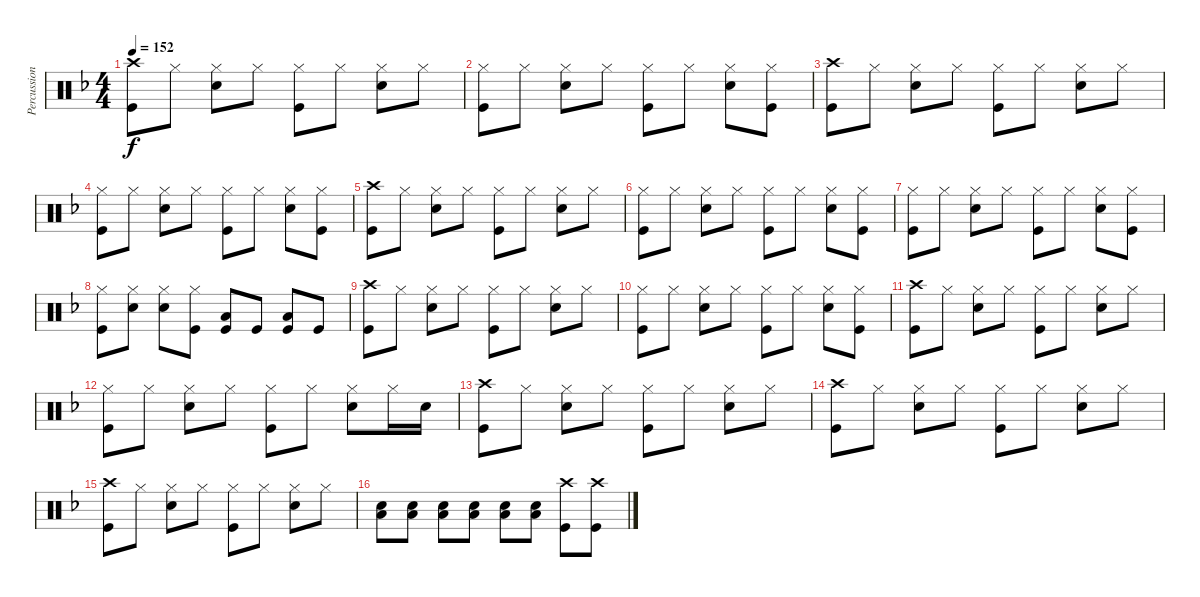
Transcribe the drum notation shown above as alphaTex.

\track ("Percussion" "Percussion") {instrument percussion}
\staff {score}
\articulation defaults
\ts (4 4)
\tempo 152
\clef neutral
\ks f
("Crash high (hit)" "Kick (hit)").8{dy f} "Hi-Hat (closed)".8 ("Hi-Hat (closed)" "Electric Snare (hit)").8 "Hi-Hat (closed)".8 ("Hi-Hat (closed)" "Kick (hit)").8 "Hi-Hat (closed)".8 ("Hi-Hat (closed)" "Electric Snare (hit)").8 "Hi-Hat (closed)".8 |
("Hi-Hat (closed)" "Kick (hit)").8 "Hi-Hat (closed)".8 ("Hi-Hat (closed)" "Electric Snare (hit)").8 "Hi-Hat (closed)".8 ("Hi-Hat (closed)" "Kick (hit)").8 "Hi-Hat (closed)".8 ("Hi-Hat (closed)" "Electric Snare (hit)").8 ("Hi-Hat (closed)" "Kick (hit)").8 |
("Crash high (hit)" "Kick (hit)").8 "Hi-Hat (closed)".8 ("Hi-Hat (closed)" "Electric Snare (hit)").8 "Hi-Hat (closed)".8 ("Hi-Hat (closed)" "Kick (hit)").8 "Hi-Hat (closed)".8 ("Hi-Hat (closed)" "Electric Snare (hit)").8 "Hi-Hat (closed)".8 |
("Hi-Hat (closed)" "Kick (hit)").8 "Hi-Hat (closed)".8 ("Hi-Hat (closed)" "Electric Snare (hit)").8 "Hi-Hat (closed)".8 ("Hi-Hat (closed)" "Kick (hit)").8 "Hi-Hat (closed)".8 ("Hi-Hat (closed)" "Electric Snare (hit)").8 ("Hi-Hat (closed)" "Kick (hit)").8 |
("Crash high (hit)" "Kick (hit)").8 "Hi-Hat (closed)".8 ("Hi-Hat (closed)" "Electric Snare (hit)").8 "Hi-Hat (closed)".8 ("Hi-Hat (closed)" "Kick (hit)").8 "Hi-Hat (closed)".8 ("Hi-Hat (closed)" "Electric Snare (hit)").8 "Hi-Hat (closed)".8 |
("Hi-Hat (closed)" "Kick (hit)").8 "Hi-Hat (closed)".8 ("Hi-Hat (closed)" "Electric Snare (hit)").8 "Hi-Hat (closed)".8 ("Hi-Hat (closed)" "Kick (hit)").8 "Hi-Hat (closed)".8 ("Hi-Hat (closed)" "Electric Snare (hit)").8 ("Hi-Hat (closed)" "Kick (hit)").8 |
("Hi-Hat (closed)" "Kick (hit)").8 "Hi-Hat (closed)".8 ("Hi-Hat (closed)" "Electric Snare (hit)").8 "Hi-Hat (closed)".8 ("Hi-Hat (closed)" "Kick (hit)").8 "Hi-Hat (closed)".8 ("Hi-Hat (closed)" "Electric Snare (hit)").8 ("Hi-Hat (closed)" "Kick (hit)").8 |
("Hi-Hat (closed)" "Kick (hit)").8 ("Hi-Hat (closed)" "Electric Snare (hit)").8 ("Hi-Hat (closed)" "Electric Snare (hit)").8 ("Hi-Hat (closed)" "Kick (hit)").8 ("Low Tom (hit)" "Kick (hit)").8 "Kick (hit)".8 ("Kick (hit)" "Low Tom (hit)").8 "Kick (hit)".8 |
("Crash high (hit)" "Kick (hit)").8 "Hi-Hat (closed)".8 ("Hi-Hat (closed)" "Electric Snare (hit)").8 "Hi-Hat (closed)".8 ("Hi-Hat (closed)" "Kick (hit)").8 "Hi-Hat (closed)".8 ("Hi-Hat (closed)" "Electric Snare (hit)").8 "Hi-Hat (closed)".8 |
("Hi-Hat (closed)" "Kick (hit)").8 "Hi-Hat (closed)".8 ("Hi-Hat (closed)" "Electric Snare (hit)").8 "Hi-Hat (closed)".8 ("Hi-Hat (closed)" "Kick (hit)").8 "Hi-Hat (closed)".8 ("Hi-Hat (closed)" "Electric Snare (hit)").8 ("Hi-Hat (closed)" "Kick (hit)").8 |
("Crash high (hit)" "Kick (hit)").8 "Hi-Hat (closed)".8 ("Hi-Hat (closed)" "Electric Snare (hit)").8 "Hi-Hat (closed)".8 ("Hi-Hat (closed)" "Kick (hit)").8 "Hi-Hat (closed)".8 ("Hi-Hat (closed)" "Electric Snare (hit)").8 "Hi-Hat (closed)".8 |
("Hi-Hat (closed)" "Kick (hit)").8 "Hi-Hat (closed)".8 ("Hi-Hat (closed)" "Electric Snare (hit)").8 "Hi-Hat (closed)".8 ("Hi-Hat (closed)" "Kick (hit)").8 "Hi-Hat (closed)".8 ("Hi-Hat (closed)" "Electric Snare (hit)").8 "Hi-Hat (closed)".16 "Electric Snare (hit)".16 |
("Crash high (hit)" "Kick (hit)").8 "Hi-Hat (closed)".8 ("Hi-Hat (closed)" "Electric Snare (hit)").8 "Hi-Hat (closed)".8 ("Hi-Hat (closed)" "Kick (hit)").8 "Hi-Hat (closed)".8 ("Hi-Hat (closed)" "Electric Snare (hit)").8 "Hi-Hat (closed)".8 |
("Crash high (hit)" "Kick (hit)").8 "Hi-Hat (closed)".8 ("Hi-Hat (closed)" "Electric Snare (hit)").8 "Hi-Hat (closed)".8 ("Hi-Hat (closed)" "Kick (hit)").8 "Hi-Hat (closed)".8 ("Hi-Hat (closed)" "Electric Snare (hit)").8 "Hi-Hat (closed)".8 |
("Crash high (hit)" "Kick (hit)").8 "Hi-Hat (closed)".8 ("Hi-Hat (closed)" "Electric Snare (hit)").8 "Hi-Hat (closed)".8 ("Hi-Hat (closed)" "Kick (hit)").8 "Hi-Hat (closed)".8 ("Hi-Hat (closed)" "Electric Snare (hit)").8 "Hi-Hat (closed)".8 |
("Low Tom (hit)" "Electric Snare (hit)").8 ("Low Tom (hit)" "Electric Snare (hit)").8 ("Low Tom (hit)" "Electric Snare (hit)").8 ("Low Tom (hit)" "Electric Snare (hit)").8 ("Low Tom (hit)" "Electric Snare (hit)").8 ("Low Tom (hit)" "Electric Snare (hit)").8 ("Crash high (hit)" "Kick (hit)").8 ("Crash high (hit)" "Kick (hit)").8
